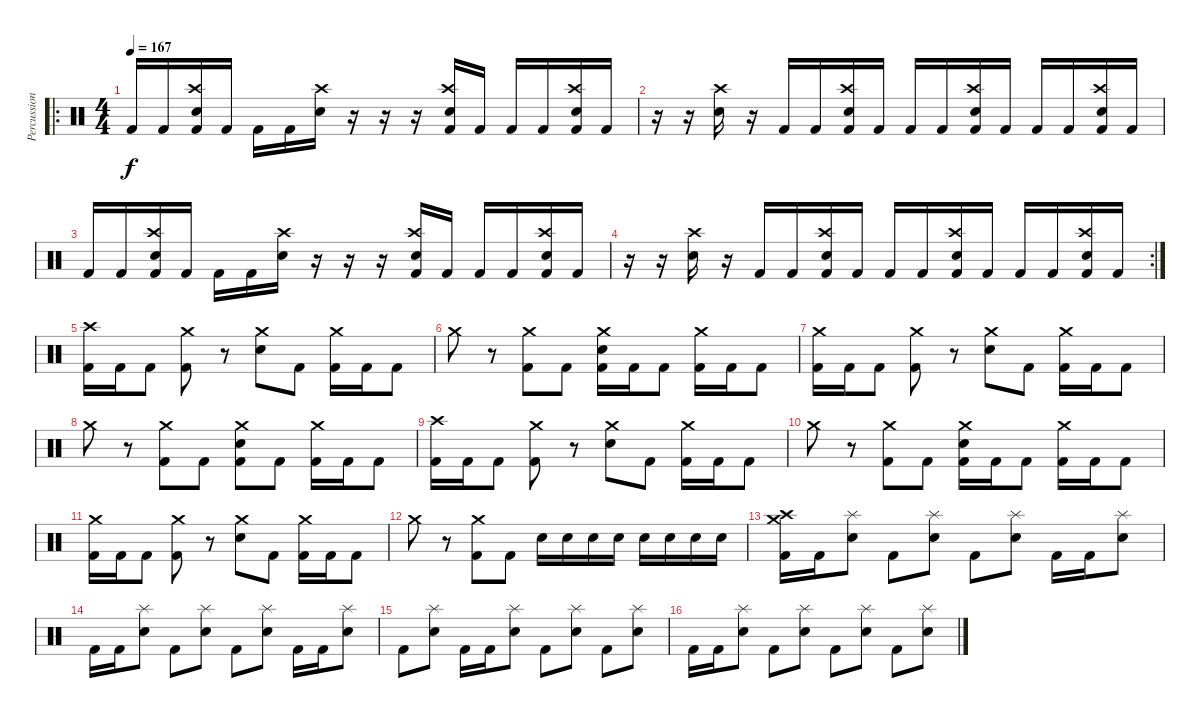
\track ("Percussion" "Percussion") {instrument percussion}
\staff {score}
\articulation defaults
\ro
\ts (4 4)
\tempo 167
\clef neutral
\ks c "Kick (hit) 2".16{dy f} "Kick (hit) 2".16
("Crash high (hit)" "Electric Snare (hit)" "Kick (hit) 2").16 "Kick (hit) 2".16 "Kick (hit) 2".16 "Kick (hit) 2".16 ("Crash high (hit)" "Electric Snare (hit)").16 r.16 r.16 r.16 ("Crash high (hit)" "Electric Snare (hit)" "Kick (hit) 2").16 "Kick (hit) 2".16 "Kick (hit) 2".16 "Kick (hit) 2".16 ("Crash high (hit)" "Electric Snare (hit)" "Kick (hit) 2").16 "Kick (hit) 2".16 |
r.16 r.16 ("Crash high (hit)" "Electric Snare (hit)").16 r.16 "Kick (hit) 2".16 "Kick (hit) 2".16 ("Crash high (hit)" "Electric Snare (hit)" "Kick (hit) 2").16 "Kick (hit) 2".16 "Kick (hit) 2".16 "Kick (hit) 2".16 ("Crash high (hit)" "Electric Snare (hit)" "Kick (hit) 2").16 "Kick (hit) 2".16 "Kick (hit) 2".16 "Kick (hit) 2".16 ("Crash high (hit)" "Electric Snare (hit)" "Kick (hit) 2").16 "Kick (hit) 2".16 |
"Kick (hit) 2".16 "Kick (hit) 2".16 ("Crash high (hit)" "Electric Snare (hit)" "Kick (hit) 2").16 "Kick (hit) 2".16 "Kick (hit) 2".16 "Kick (hit) 2".16 ("Crash high (hit)" "Electric Snare (hit)").16 r.16 r.16 r.16 ("Crash high (hit)" "Electric Snare (hit)" "Kick (hit) 2").16 "Kick (hit) 2".16 "Kick (hit) 2".16 "Kick (hit) 2".16 ("Crash high (hit)" "Electric Snare (hit)" "Kick (hit) 2").16 "Kick (hit) 2".16 |
\rc 2
r.16 r.16 ("Crash high (hit)" "Electric Snare (hit)").16 r.16 "Kick (hit) 2".16 "Kick (hit) 2".16 ("Crash high (hit)" "Electric Snare (hit)" "Kick (hit) 2").16 "Kick (hit) 2".16 "Kick (hit) 2".16 "Kick (hit) 2".16 ("Crash high (hit)" "Electric Snare (hit)" "Kick (hit) 2").16 "Kick (hit) 2".16 "Kick (hit) 2".16 "Kick (hit) 2".16 ("Crash high (hit)" "Electric Snare (hit)" "Kick (hit) 2").16 "Kick (hit) 2".16 |
("Crash high (hit)" "Kick (hit) 2").16 "Kick (hit) 2".16 "Kick (hit) 2".8 ("Crash medium (hit)" "Kick (hit) 2").8 r.8 ("Crash medium (hit)" "Electric Snare (hit)").8 "Kick (hit) 2".8 ("Crash medium (hit)" "Kick (hit) 2").16 "Kick (hit) 2".16 "Kick (hit) 2".8 |
"Crash medium (hit)".8 r.8 ("Crash medium (hit)" "Kick (hit) 2").8 "Kick (hit) 2".8 ("Crash medium (hit)" "Electric Snare (hit)" "Kick (hit) 2").16 "Kick (hit) 2".16 "Kick (hit) 2".8 ("Crash medium (hit)" "Kick (hit) 2").16 "Kick (hit) 2".16 "Kick (hit) 2".8 |
("Crash medium (hit)" "Kick (hit) 2").16 "Kick (hit) 2".16 "Kick (hit) 2".8 ("Crash medium (hit)" "Kick (hit) 2").8 r.8 ("Crash medium (hit)" "Electric Snare (hit)").8 "Kick (hit) 2".8 ("Crash medium (hit)" "Kick (hit) 2").16 "Kick (hit) 2".16 "Kick (hit) 2".8 |
"Crash medium (hit)".8 r.8 ("Crash medium (hit)" "Kick (hit) 2").8 "Kick (hit) 2".8 ("Crash medium (hit)" "Electric Snare (hit)" "Kick (hit) 2").8 "Kick (hit) 2".8 ("Crash medium (hit)" "Kick (hit) 2").16 "Kick (hit) 2".16 "Kick (hit) 2".8 |
("Crash high (hit)" "Kick (hit) 2").16 "Kick (hit) 2".16 "Kick (hit) 2".8 ("Crash medium (hit)" "Kick (hit) 2").8 r.8 ("Crash medium (hit)" "Electric Snare (hit)").8 "Kick (hit) 2".8 ("Crash medium (hit)" "Kick (hit) 2").16 "Kick (hit) 2".16 "Kick (hit) 2".8 |
"Crash medium (hit)".8 r.8 ("Crash medium (hit)" "Kick (hit) 2").8 "Kick (hit) 2".8 ("Crash medium (hit)" "Electric Snare (hit)" "Kick (hit) 2").16 "Kick (hit) 2".16 "Kick (hit) 2".8 ("Crash medium (hit)" "Kick (hit) 2").16 "Kick (hit) 2".16 "Kick (hit) 2".8 |
("Crash medium (hit)" "Kick (hit) 2").16 "Kick (hit) 2".16 "Kick (hit) 2".8 ("Crash medium (hit)" "Kick (hit) 2").8 r.8 ("Crash medium (hit)" "Electric Snare (hit)").8 "Kick (hit) 2".8 ("Crash medium (hit)" "Kick (hit) 2").16 "Kick (hit) 2".16 "Kick (hit) 2".8 |
"Crash medium (hit)".8 r.8 ("Crash medium (hit)" "Kick (hit) 2").8 "Kick (hit) 2".8 "Electric Snare (hit)".16 "Electric Snare (hit)".16 "Electric Snare (hit)".16 "Electric Snare (hit)".16 "Electric Snare (hit)".16 "Electric Snare (hit)".16 "Electric Snare (hit)".16 "Electric Snare (hit)".16 |
("Crash medium (hit)" "Crash high (hit)" "Kick (hit) 2").16 "Kick (hit) 2".16 ("Splash (hit)" "Electric Snare (hit)").8 "Kick (hit) 2".8 ("Splash (hit)" "Electric Snare (hit)").8 "Kick (hit) 2".8 ("Splash (hit)" "Electric Snare (hit)").8 "Kick (hit) 2".16 "Kick (hit) 2".16 ("Splash (hit)" "Electric Snare (hit)").8 |
"Kick (hit) 2".16 "Kick (hit) 2".16 ("Splash (hit)" "Electric Snare (hit)").8 "Kick (hit) 2".8 ("Splash (hit)" "Electric Snare (hit)").8 "Kick (hit) 2".8 ("Splash (hit)" "Electric Snare (hit)").8 "Kick (hit) 2".16 "Kick (hit) 2".16 ("Splash (hit)" "Electric Snare (hit)").8 |
"Kick (hit) 2".8 ("Splash (hit)" "Electric Snare (hit)").8 "Kick (hit) 2".16 "Kick (hit) 2".16 ("Splash (hit)" "Electric Snare (hit)").8 "Kick (hit) 2".8 ("Splash (hit)" "Electric Snare (hit)").8 "Kick (hit) 2".8 ("Splash (hit)" "Electric Snare (hit)").8 |
"Kick (hit) 2".16 "Kick (hit) 2".16 ("Splash (hit)" "Electric Snare (hit)").8 "Kick (hit) 2".8 ("Splash (hit)" "Electric Snare (hit)").8 "Kick (hit) 2".8 ("Splash (hit)" "Electric Snare (hit)").8 "Kick (hit) 2".8 ("Splash (hit)" "Electric Snare (hit)").8
